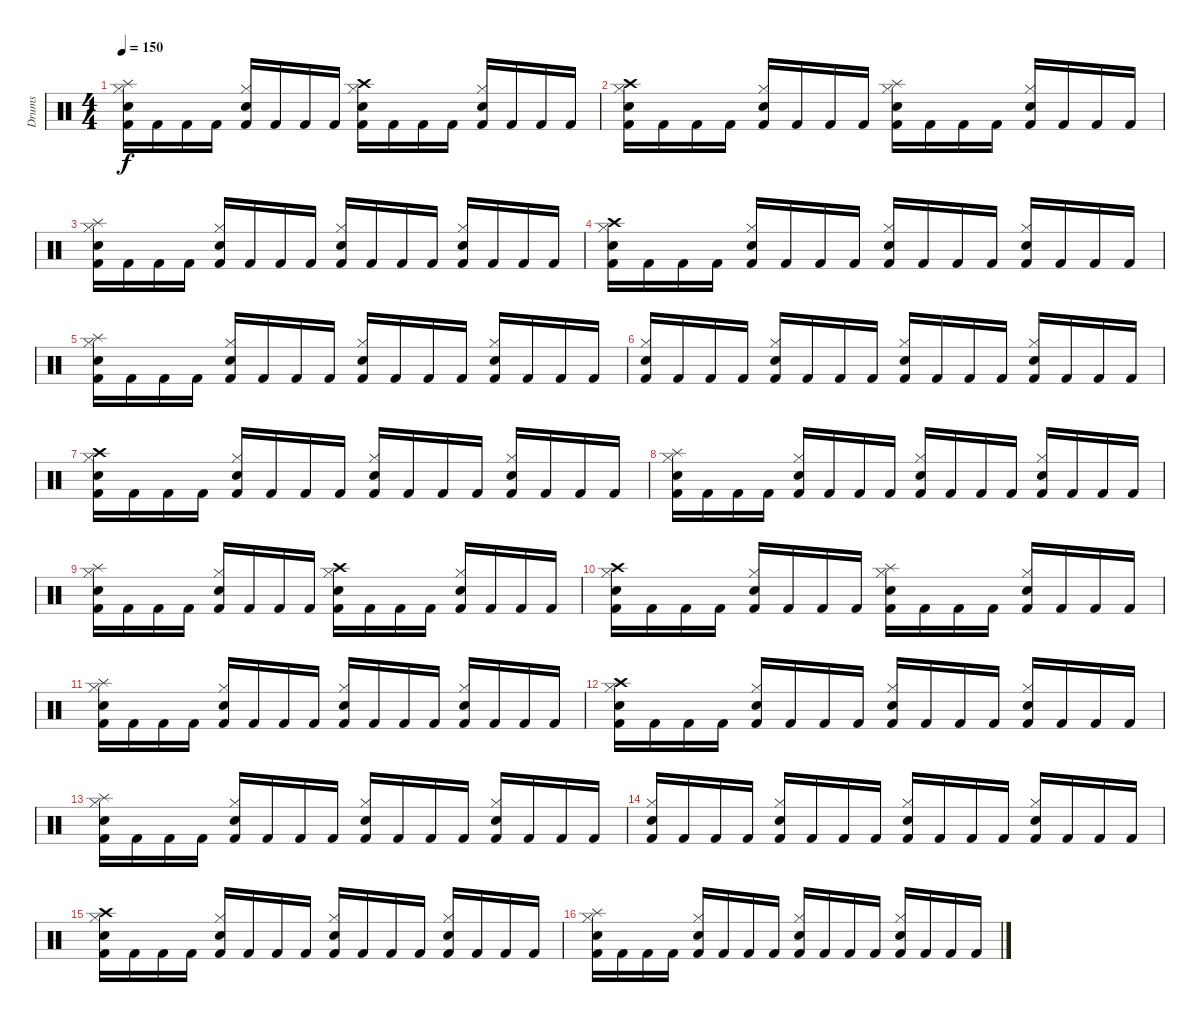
\track ("Drums" "Drums") {instrument percussion}
\staff {score}
\articulation defaults
\ts (4 4)
\tempo 150
\clef neutral
\ks c
("Kick (hit) 2" "Hi-Hat (closed)" "Snare (hit) 2" "Splash (hit)").16{dy f} "Kick (hit) 2".16 "Kick (hit) 2".16 "Kick (hit) 2".16 ("Kick (hit) 2" "Hi-Hat (closed)" "Snare (hit) 2").16 "Kick (hit) 2".16 "Kick (hit) 2".16 "Kick (hit) 2".16 ("Kick (hit) 2" "Hi-Hat (closed)" "Snare (hit) 2" "Crash high (hit)").16 "Kick (hit) 2".16 "Kick (hit) 2".16 "Kick (hit) 2".16 ("Kick (hit) 2" "Hi-Hat (closed)" "Snare (hit) 2").16 "Kick (hit) 2".16 "Kick (hit) 2".16 "Kick (hit) 2".16 |
("Kick (hit) 2" "Hi-Hat (closed)" "Snare (hit) 2" "Crash high (hit)").16 "Kick (hit) 2".16 "Kick (hit) 2".16 "Kick (hit) 2".16 ("Kick (hit) 2" "Hi-Hat (closed)" "Snare (hit) 2").16 "Kick (hit) 2".16 "Kick (hit) 2".16 "Kick (hit) 2".16 ("Kick (hit) 2" "Hi-Hat (closed)" "Snare (hit) 2" "Splash (hit)").16 "Kick (hit) 2".16 "Kick (hit) 2".16 "Kick (hit) 2".16 ("Kick (hit) 2" "Hi-Hat (closed)" "Snare (hit) 2").16 "Kick (hit) 2".16 "Kick (hit) 2".16 "Kick (hit) 2".16 |
("Kick (hit) 2" "Hi-Hat (closed)" "Snare (hit) 2" "Splash (hit)").16 "Kick (hit) 2".16 "Kick (hit) 2".16 "Kick (hit) 2".16 ("Kick (hit) 2" "Hi-Hat (closed)" "Snare (hit) 2").16 "Kick (hit) 2".16 "Kick (hit) 2".16 "Kick (hit) 2".16 ("Kick (hit) 2" "Hi-Hat (closed)" "Snare (hit) 2").16 "Kick (hit) 2".16 "Kick (hit) 2".16 "Kick (hit) 2".16 ("Kick (hit) 2" "Hi-Hat (closed)" "Snare (hit) 2").16 "Kick (hit) 2".16 "Kick (hit) 2".16 "Kick (hit) 2".16 |
("Kick (hit) 2" "Hi-Hat (closed)" "Snare (hit) 2" "Crash high (hit)").16 "Kick (hit) 2".16 "Kick (hit) 2".16 "Kick (hit) 2".16 ("Kick (hit) 2" "Hi-Hat (closed)" "Snare (hit) 2").16 "Kick (hit) 2".16 "Kick (hit) 2".16 "Kick (hit) 2".16 ("Kick (hit) 2" "Hi-Hat (closed)" "Snare (hit) 2").16 "Kick (hit) 2".16 "Kick (hit) 2".16 "Kick (hit) 2".16 ("Kick (hit) 2" "Hi-Hat (closed)" "Snare (hit) 2").16 "Kick (hit) 2".16 "Kick (hit) 2".16 "Kick (hit) 2".16 |
("Kick (hit) 2" "Hi-Hat (closed)" "Snare (hit) 2" "Splash (hit)").16 "Kick (hit) 2".16 "Kick (hit) 2".16 "Kick (hit) 2".16 ("Kick (hit) 2" "Hi-Hat (closed)" "Snare (hit) 2").16 "Kick (hit) 2".16 "Kick (hit) 2".16 "Kick (hit) 2".16 ("Kick (hit) 2" "Hi-Hat (closed)" "Snare (hit) 2").16 "Kick (hit) 2".16 "Kick (hit) 2".16 "Kick (hit) 2".16 ("Kick (hit) 2" "Hi-Hat (closed)" "Snare (hit) 2").16 "Kick (hit) 2".16 "Kick (hit) 2".16 "Kick (hit) 2".16 |
("Kick (hit) 2" "Hi-Hat (closed)" "Snare (hit) 2").16 "Kick (hit) 2".16 "Kick (hit) 2".16 "Kick (hit) 2".16 ("Kick (hit) 2" "Hi-Hat (closed)" "Snare (hit) 2").16 "Kick (hit) 2".16 "Kick (hit) 2".16 "Kick (hit) 2".16 ("Kick (hit) 2" "Hi-Hat (closed)" "Snare (hit) 2").16 "Kick (hit) 2".16 "Kick (hit) 2".16 "Kick (hit) 2".16 ("Kick (hit) 2" "Hi-Hat (closed)" "Snare (hit) 2").16 "Kick (hit) 2".16 "Kick (hit) 2".16 "Kick (hit) 2".16 |
("Kick (hit) 2" "Hi-Hat (closed)" "Snare (hit) 2" "Crash high (hit)").16 "Kick (hit) 2".16 "Kick (hit) 2".16 "Kick (hit) 2".16 ("Kick (hit) 2" "Hi-Hat (closed)" "Snare (hit) 2").16 "Kick (hit) 2".16 "Kick (hit) 2".16 "Kick (hit) 2".16 ("Kick (hit) 2" "Hi-Hat (closed)" "Snare (hit) 2").16 "Kick (hit) 2".16 "Kick (hit) 2".16 "Kick (hit) 2".16 ("Kick (hit) 2" "Hi-Hat (closed)" "Snare (hit) 2").16 "Kick (hit) 2".16 "Kick (hit) 2".16 "Kick (hit) 2".16 |
("Kick (hit) 2" "Hi-Hat (closed)" "Snare (hit) 2" "Splash (hit)").16 "Kick (hit) 2".16 "Kick (hit) 2".16 "Kick (hit) 2".16 ("Kick (hit) 2" "Hi-Hat (closed)" "Snare (hit) 2").16 "Kick (hit) 2".16 "Kick (hit) 2".16 "Kick (hit) 2".16 ("Kick (hit) 2" "Hi-Hat (closed)" "Snare (hit) 2").16 "Kick (hit) 2".16 "Kick (hit) 2".16 "Kick (hit) 2".16 ("Kick (hit) 2" "Hi-Hat (closed)" "Snare (hit) 2").16 "Kick (hit) 2".16 "Kick (hit) 2".16 "Kick (hit) 2".16 |
("Kick (hit) 2" "Hi-Hat (closed)" "Snare (hit) 2" "Splash (hit)").16 "Kick (hit) 2".16 "Kick (hit) 2".16 "Kick (hit) 2".16 ("Kick (hit) 2" "Hi-Hat (closed)" "Snare (hit) 2").16 "Kick (hit) 2".16 "Kick (hit) 2".16 "Kick (hit) 2".16 ("Kick (hit) 2" "Hi-Hat (closed)" "Snare (hit) 2" "Crash high (hit)").16 "Kick (hit) 2".16 "Kick (hit) 2".16 "Kick (hit) 2".16 ("Kick (hit) 2" "Hi-Hat (closed)" "Snare (hit) 2").16 "Kick (hit) 2".16 "Kick (hit) 2".16 "Kick (hit) 2".16 |
("Kick (hit) 2" "Hi-Hat (closed)" "Snare (hit) 2" "Crash high (hit)").16 "Kick (hit) 2".16 "Kick (hit) 2".16 "Kick (hit) 2".16 ("Kick (hit) 2" "Hi-Hat (closed)" "Snare (hit) 2").16 "Kick (hit) 2".16 "Kick (hit) 2".16 "Kick (hit) 2".16 ("Kick (hit) 2" "Hi-Hat (closed)" "Snare (hit) 2" "Splash (hit)").16 "Kick (hit) 2".16 "Kick (hit) 2".16 "Kick (hit) 2".16 ("Kick (hit) 2" "Hi-Hat (closed)" "Snare (hit) 2").16 "Kick (hit) 2".16 "Kick (hit) 2".16 "Kick (hit) 2".16 |
("Kick (hit) 2" "Hi-Hat (closed)" "Snare (hit) 2" "Splash (hit)").16 "Kick (hit) 2".16 "Kick (hit) 2".16 "Kick (hit) 2".16 ("Kick (hit) 2" "Hi-Hat (closed)" "Snare (hit) 2").16 "Kick (hit) 2".16 "Kick (hit) 2".16 "Kick (hit) 2".16 ("Kick (hit) 2" "Hi-Hat (closed)" "Snare (hit) 2").16 "Kick (hit) 2".16 "Kick (hit) 2".16 "Kick (hit) 2".16 ("Kick (hit) 2" "Hi-Hat (closed)" "Snare (hit) 2").16 "Kick (hit) 2".16 "Kick (hit) 2".16 "Kick (hit) 2".16 |
("Kick (hit) 2" "Hi-Hat (closed)" "Snare (hit) 2" "Crash high (hit)").16 "Kick (hit) 2".16 "Kick (hit) 2".16 "Kick (hit) 2".16 ("Kick (hit) 2" "Hi-Hat (closed)" "Snare (hit) 2").16 "Kick (hit) 2".16 "Kick (hit) 2".16 "Kick (hit) 2".16 ("Kick (hit) 2" "Hi-Hat (closed)" "Snare (hit) 2").16 "Kick (hit) 2".16 "Kick (hit) 2".16 "Kick (hit) 2".16 ("Kick (hit) 2" "Hi-Hat (closed)" "Snare (hit) 2").16 "Kick (hit) 2".16 "Kick (hit) 2".16 "Kick (hit) 2".16 |
("Kick (hit) 2" "Hi-Hat (closed)" "Snare (hit) 2" "Splash (hit)").16 "Kick (hit) 2".16 "Kick (hit) 2".16 "Kick (hit) 2".16 ("Kick (hit) 2" "Hi-Hat (closed)" "Snare (hit) 2").16 "Kick (hit) 2".16 "Kick (hit) 2".16 "Kick (hit) 2".16 ("Kick (hit) 2" "Hi-Hat (closed)" "Snare (hit) 2").16 "Kick (hit) 2".16 "Kick (hit) 2".16 "Kick (hit) 2".16 ("Kick (hit) 2" "Hi-Hat (closed)" "Snare (hit) 2").16 "Kick (hit) 2".16 "Kick (hit) 2".16 "Kick (hit) 2".16 |
("Kick (hit) 2" "Hi-Hat (closed)" "Snare (hit) 2").16 "Kick (hit) 2".16 "Kick (hit) 2".16 "Kick (hit) 2".16 ("Kick (hit) 2" "Hi-Hat (closed)" "Snare (hit) 2").16 "Kick (hit) 2".16 "Kick (hit) 2".16 "Kick (hit) 2".16 ("Kick (hit) 2" "Hi-Hat (closed)" "Snare (hit) 2").16 "Kick (hit) 2".16 "Kick (hit) 2".16 "Kick (hit) 2".16 ("Kick (hit) 2" "Hi-Hat (closed)" "Snare (hit) 2").16 "Kick (hit) 2".16 "Kick (hit) 2".16 "Kick (hit) 2".16 |
("Kick (hit) 2" "Hi-Hat (closed)" "Snare (hit) 2" "Crash high (hit)").16 "Kick (hit) 2".16 "Kick (hit) 2".16 "Kick (hit) 2".16 ("Kick (hit) 2" "Hi-Hat (closed)" "Snare (hit) 2").16 "Kick (hit) 2".16 "Kick (hit) 2".16 "Kick (hit) 2".16 ("Kick (hit) 2" "Hi-Hat (closed)" "Snare (hit) 2").16 "Kick (hit) 2".16 "Kick (hit) 2".16 "Kick (hit) 2".16 ("Kick (hit) 2" "Hi-Hat (closed)" "Snare (hit) 2").16 "Kick (hit) 2".16 "Kick (hit) 2".16 "Kick (hit) 2".16 |
("Kick (hit) 2" "Hi-Hat (closed)" "Snare (hit) 2" "Splash (hit)").16 "Kick (hit) 2".16 "Kick (hit) 2".16 "Kick (hit) 2".16 ("Kick (hit) 2" "Hi-Hat (closed)" "Snare (hit) 2").16 "Kick (hit) 2".16 "Kick (hit) 2".16 "Kick (hit) 2".16 ("Kick (hit) 2" "Hi-Hat (closed)" "Snare (hit) 2").16 "Kick (hit) 2".16 "Kick (hit) 2".16 "Kick (hit) 2".16 ("Kick (hit) 2" "Hi-Hat (closed)" "Snare (hit) 2").16 "Kick (hit) 2".16 "Kick (hit) 2".16 "Kick (hit) 2".16
